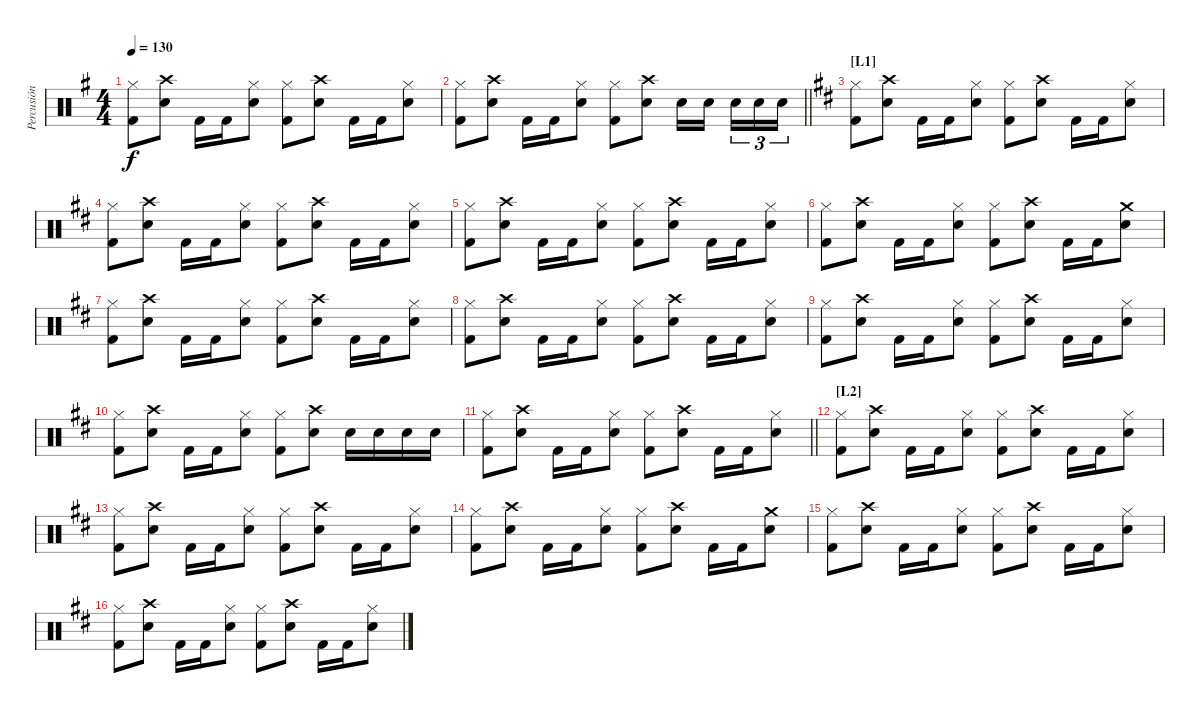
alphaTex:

\track ("Percusión" "Percusión") {instrument percussion}
\staff {score}
\articulation defaults
\ts (4 4)
\tempo 130
\clef neutral
\ks g
("Kick (hit) 2" "Hi-Hat (closed)").8{dy f} ("Snare (hit) 2" "Crash high (hit)").8 "Kick (hit) 2".16 "Kick (hit) 2".16 ("Snare (hit) 2" "Hi-Hat (closed)").8 ("Kick (hit) 2" "Hi-Hat (closed)").8 ("Snare (hit) 2" "Crash high (hit)").8 "Kick (hit) 2".16 "Kick (hit) 2".16 ("Snare (hit) 2" "Hi-Hat (closed)").8 |
\barLineRight lightlight
("Kick (hit) 2" "Hi-Hat (closed)").8 ("Snare (hit) 2" "Crash high (hit)").8 "Kick (hit) 2".16 "Kick (hit) 2".16 ("Snare (hit) 2" "Hi-Hat (closed)").8 ("Kick (hit) 2" "Hi-Hat (closed)").8 ("Snare (hit) 2" "Crash high (hit)").8 "Snare (hit) 2".16 "Snare (hit) 2".16{beam splitsecondary} "Snare (hit) 2".16{tu (3 2)} "Snare (hit) 2".16{tu (3 2)} "Snare (hit) 2".16{tu (3 2)} |
\section ("" "[L1]")
\ks d
("Kick (hit) 2" "Hi-Hat (closed)").8 ("Snare (hit) 2" "Crash high (hit)").8 "Kick (hit) 2".16 "Kick (hit) 2".16 ("Snare (hit) 2" "Hi-Hat (closed)").8 ("Kick (hit) 2" "Hi-Hat (closed)").8 ("Snare (hit) 2" "Crash high (hit)").8 "Kick (hit) 2".16 "Kick (hit) 2".16 ("Snare (hit) 2" "Hi-Hat (closed)").8 |
("Kick (hit) 2" "Hi-Hat (closed)").8 ("Snare (hit) 2" "Crash high (hit)").8 "Kick (hit) 2".16 "Kick (hit) 2".16 ("Snare (hit) 2" "Hi-Hat (closed)").8 ("Kick (hit) 2" "Hi-Hat (closed)").8 ("Snare (hit) 2" "Crash high (hit)").8 "Kick (hit) 2".16 "Kick (hit) 2".16 ("Snare (hit) 2" "Hi-Hat (closed)").8 |
("Kick (hit) 2" "Hi-Hat (closed)").8 ("Snare (hit) 2" "Crash high (hit)").8 "Kick (hit) 2".16 "Kick (hit) 2".16 ("Snare (hit) 2" "Hi-Hat (closed)").8 ("Kick (hit) 2" "Hi-Hat (closed)").8 ("Snare (hit) 2" "Crash high (hit)").8 "Kick (hit) 2".16 "Kick (hit) 2".16 ("Snare (hit) 2" "Hi-Hat (closed)").8 |
("Kick (hit) 2" "Hi-Hat (closed)").8 ("Snare (hit) 2" "Crash high (hit)").8 "Kick (hit) 2".16 "Kick (hit) 2".16 ("Snare (hit) 2" "Hi-Hat (closed)").8 ("Kick (hit) 2" "Hi-Hat (closed)").8 ("Snare (hit) 2" "Crash high (hit)").8 "Kick (hit) 2".16 "Kick (hit) 2".16 ("Snare (hit) 2" "Crash medium (hit)").8 |
("Kick (hit) 2" "Hi-Hat (closed)").8 ("Snare (hit) 2" "Crash high (hit)").8 "Kick (hit) 2".16 "Kick (hit) 2".16 ("Snare (hit) 2" "Hi-Hat (closed)").8 ("Kick (hit) 2" "Hi-Hat (closed)").8 ("Snare (hit) 2" "Crash high (hit)").8 "Kick (hit) 2".16 "Kick (hit) 2".16 ("Snare (hit) 2" "Hi-Hat (closed)").8 |
("Kick (hit) 2" "Hi-Hat (closed)").8 ("Snare (hit) 2" "Crash high (hit)").8 "Kick (hit) 2".16 "Kick (hit) 2".16 ("Snare (hit) 2" "Hi-Hat (closed)").8 ("Kick (hit) 2" "Hi-Hat (closed)").8 ("Snare (hit) 2" "Crash high (hit)").8 "Kick (hit) 2".16 "Kick (hit) 2".16 ("Snare (hit) 2" "Hi-Hat (closed)").8 |
("Kick (hit) 2" "Hi-Hat (closed)").8 ("Snare (hit) 2" "Crash high (hit)").8 "Kick (hit) 2".16 "Kick (hit) 2".16 ("Snare (hit) 2" "Hi-Hat (closed)").8 ("Kick (hit) 2" "Hi-Hat (closed)").8 ("Snare (hit) 2" "Crash high (hit)").8 "Kick (hit) 2".16 "Kick (hit) 2".16 ("Snare (hit) 2" "Hi-Hat (closed)").8 |
("Kick (hit) 2" "Hi-Hat (closed)").8 ("Snare (hit) 2" "Crash high (hit)").8 "Kick (hit) 2".16 "Kick (hit) 2".16 ("Snare (hit) 2" "Hi-Hat (closed)").8 ("Kick (hit) 2" "Hi-Hat (closed)").8 ("Snare (hit) 2" "Crash high (hit)").8 "Snare (hit) 2".16 "Snare (hit) 2".16 "Snare (hit) 2".16 "Snare (hit) 2".16 |
\barLineRight lightlight
("Kick (hit) 2" "Hi-Hat (closed)").8 ("Snare (hit) 2" "Crash high (hit)").8 "Kick (hit) 2".16 "Kick (hit) 2".16 ("Snare (hit) 2" "Hi-Hat (closed)").8 ("Kick (hit) 2" "Hi-Hat (closed)").8 ("Snare (hit) 2" "Crash high (hit)").8 "Kick (hit) 2".16 "Kick (hit) 2".16 ("Snare (hit) 2" "Hi-Hat (closed)").8 |
\section ("" "[L2]")
("Kick (hit) 2" "Hi-Hat (closed)").8 ("Snare (hit) 2" "Crash high (hit)").8 "Kick (hit) 2".16 "Kick (hit) 2".16 ("Snare (hit) 2" "Hi-Hat (closed)").8 ("Kick (hit) 2" "Hi-Hat (closed)").8 ("Snare (hit) 2" "Crash high (hit)").8 "Kick (hit) 2".16 "Kick (hit) 2".16 ("Snare (hit) 2" "Hi-Hat (closed)").8 |
("Kick (hit) 2" "Hi-Hat (closed)").8 ("Snare (hit) 2" "Crash high (hit)").8 "Kick (hit) 2".16 "Kick (hit) 2".16 ("Snare (hit) 2" "Hi-Hat (closed)").8 ("Kick (hit) 2" "Hi-Hat (closed)").8 ("Snare (hit) 2" "Crash high (hit)").8 "Kick (hit) 2".16 "Kick (hit) 2".16 ("Snare (hit) 2" "Hi-Hat (closed)").8 |
("Kick (hit) 2" "Hi-Hat (closed)").8 ("Snare (hit) 2" "Crash high (hit)").8 "Kick (hit) 2".16 "Kick (hit) 2".16 ("Snare (hit) 2" "Hi-Hat (closed)").8 ("Kick (hit) 2" "Hi-Hat (closed)").8 ("Snare (hit) 2" "Crash high (hit)").8 "Kick (hit) 2".16 "Kick (hit) 2".16 ("Snare (hit) 2" "Crash medium (hit)").8 |
("Kick (hit) 2" "Hi-Hat (closed)").8 ("Snare (hit) 2" "Crash high (hit)").8 "Kick (hit) 2".16 "Kick (hit) 2".16 ("Snare (hit) 2" "Hi-Hat (closed)").8 ("Kick (hit) 2" "Hi-Hat (closed)").8 ("Snare (hit) 2" "Crash high (hit)").8 "Kick (hit) 2".16 "Kick (hit) 2".16 ("Snare (hit) 2" "Hi-Hat (closed)").8 |
("Kick (hit) 2" "Hi-Hat (closed)").8 ("Snare (hit) 2" "Crash high (hit)").8 "Kick (hit) 2".16 "Kick (hit) 2".16 ("Snare (hit) 2" "Hi-Hat (closed)").8 ("Kick (hit) 2" "Hi-Hat (closed)").8 ("Snare (hit) 2" "Crash high (hit)").8 "Kick (hit) 2".16 "Kick (hit) 2".16 ("Snare (hit) 2" "Hi-Hat (closed)").8
